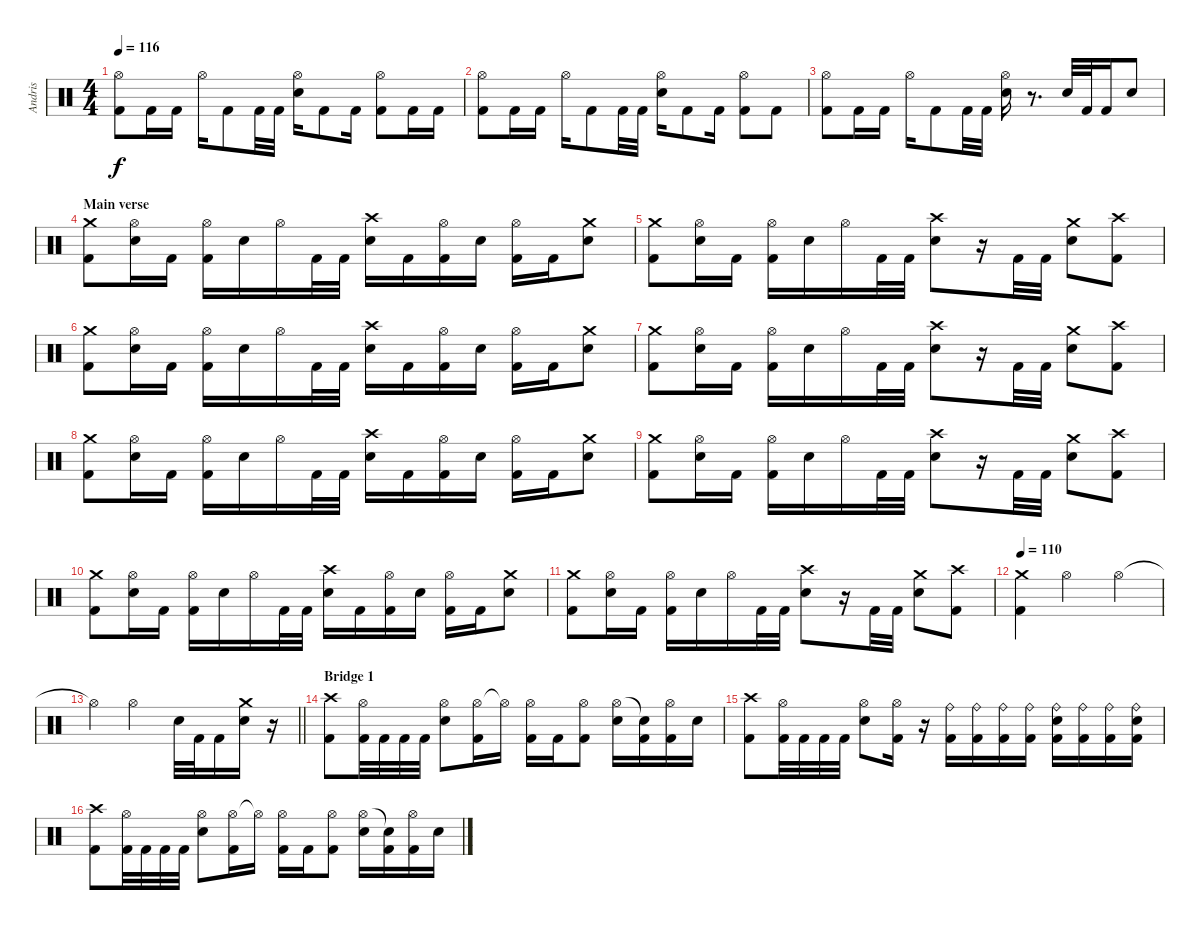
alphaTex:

\track ("Andris" "Andris") {instrument percussion}
\staff {score}
\articulation defaults
\ts (4 4)
\tempo 116
\clef neutral
\ks c
("Hi-Hat (open)" "Kick (hit) 2").8{dy f} "Kick (hit) 2".16 "Kick (hit) 2".16 "Hi-Hat (open)".16 "Kick (hit) 2".8 "Kick (hit) 2".32 "Kick (hit) 2".32 ("Hi-Hat (open)" "Electric Snare (hit)").16 "Kick (hit) 2".8 "Kick (hit) 2".16 ("Hi-Hat (open)" "Kick (hit) 2").8 "Kick (hit) 2".16 "Kick (hit) 2".16 |
("Hi-Hat (open)" "Kick (hit) 2").8 "Kick (hit) 2".16 "Kick (hit) 2".16 "Hi-Hat (open)".16 "Kick (hit) 2".8 "Kick (hit) 2".32 "Kick (hit) 2".32 ("Hi-Hat (open)" "Electric Snare (hit)").16 "Kick (hit) 2".8 "Kick (hit) 2".16 ("Hi-Hat (open)" "Kick (hit) 2").8 "Kick (hit) 2".8 |
("Hi-Hat (open)" "Kick (hit) 2").8 "Kick (hit) 2".16 "Kick (hit) 2".16 "Hi-Hat (open)".16 "Kick (hit) 2".8 "Kick (hit) 2".32 "Kick (hit) 2".32 ("Hi-Hat (open)" "Electric Snare (hit)").16 r.8{d} "Electric Snare (hit)".32 "Kick (hit) 2".32 "Kick (hit) 2".16 "Electric Snare (hit)".8 |
\section ("" "Main verse")
("Crash medium (hit)" "Kick (hit) 2").8 ("Hi-Hat (open)" "Electric Snare (hit)").16 "Kick (hit) 2".16 ("Hi-Hat (open)" "Kick (hit) 2").16 "Electric Snare (hit)".16 "Hi-Hat (open)".16 "Kick (hit) 2".32 "Kick (hit) 2".32 ("Crash high (hit)" "Electric Snare (hit)").16 "Kick (hit) 2".16 ("Hi-Hat (open)" "Kick (hit) 2").16 "Electric Snare (hit)".16 ("Hi-Hat (open)" "Kick (hit) 2").16 "Kick (hit) 2".16 ("Crash medium (hit)" "Electric Snare (hit)").8 |
("Crash medium (hit)" "Kick (hit) 2").8 ("Hi-Hat (open)" "Electric Snare (hit)").16 "Kick (hit) 2".16 ("Hi-Hat (open)" "Kick (hit) 2").16 "Electric Snare (hit)".16 "Hi-Hat (open)".16 "Kick (hit) 2".32 "Kick (hit) 2".32 ("Crash high (hit)" "Electric Snare (hit)").8 r.16 "Kick (hit) 2".32 "Kick (hit) 2".32 ("Crash medium (hit)" "Electric Snare (hit)").8 ("Crash high (hit)" "Kick (hit) 2").8 |
("Crash medium (hit)" "Kick (hit) 2").8 ("Hi-Hat (open)" "Electric Snare (hit)").16 "Kick (hit) 2".16 ("Hi-Hat (open)" "Kick (hit) 2").16 "Electric Snare (hit)".16 "Hi-Hat (open)".16 "Kick (hit) 2".32 "Kick (hit) 2".32 ("Crash high (hit)" "Electric Snare (hit)").16 "Kick (hit) 2".16 ("Hi-Hat (open)" "Kick (hit) 2").16 "Electric Snare (hit)".16 ("Hi-Hat (open)" "Kick (hit) 2").16 "Kick (hit) 2".16 ("Crash medium (hit)" "Electric Snare (hit)").8 |
("Crash medium (hit)" "Kick (hit) 2").8 ("Hi-Hat (open)" "Electric Snare (hit)").16 "Kick (hit) 2".16 ("Hi-Hat (open)" "Kick (hit) 2").16 "Electric Snare (hit)".16 "Hi-Hat (open)".16 "Kick (hit) 2".32 "Kick (hit) 2".32 ("Crash high (hit)" "Electric Snare (hit)").8 r.16 "Kick (hit) 2".32 "Kick (hit) 2".32 ("Crash medium (hit)" "Electric Snare (hit)").8 ("Crash high (hit)" "Kick (hit) 2").8 |
("Crash medium (hit)" "Kick (hit) 2").8 ("Hi-Hat (open)" "Electric Snare (hit)").16 "Kick (hit) 2".16 ("Hi-Hat (open)" "Kick (hit) 2").16 "Electric Snare (hit)".16 "Hi-Hat (open)".16 "Kick (hit) 2".32 "Kick (hit) 2".32 ("Crash high (hit)" "Electric Snare (hit)").16 "Kick (hit) 2".16 ("Hi-Hat (open)" "Kick (hit) 2").16 "Electric Snare (hit)".16 ("Hi-Hat (open)" "Kick (hit) 2").16 "Kick (hit) 2".16 ("Crash medium (hit)" "Electric Snare (hit)").8 |
("Crash medium (hit)" "Kick (hit) 2").8 ("Hi-Hat (open)" "Electric Snare (hit)").16 "Kick (hit) 2".16 ("Hi-Hat (open)" "Kick (hit) 2").16 "Electric Snare (hit)".16 "Hi-Hat (open)".16 "Kick (hit) 2".32 "Kick (hit) 2".32 ("Crash high (hit)" "Electric Snare (hit)").8 r.16 "Kick (hit) 2".32 "Kick (hit) 2".32 ("Crash medium (hit)" "Electric Snare (hit)").8 ("Crash high (hit)" "Kick (hit) 2").8 |
("Crash medium (hit)" "Kick (hit) 2").8 ("Hi-Hat (open)" "Electric Snare (hit)").16 "Kick (hit) 2".16 ("Hi-Hat (open)" "Kick (hit) 2").16 "Electric Snare (hit)".16 "Hi-Hat (open)".16 "Kick (hit) 2".32 "Kick (hit) 2".32 ("Crash high (hit)" "Electric Snare (hit)").16 "Kick (hit) 2".16 ("Hi-Hat (open)" "Kick (hit) 2").16 "Electric Snare (hit)".16 ("Hi-Hat (open)" "Kick (hit) 2").16 "Kick (hit) 2".16 ("Crash medium (hit)" "Electric Snare (hit)").8 |
("Crash medium (hit)" "Kick (hit) 2").8 ("Hi-Hat (open)" "Electric Snare (hit)").16 "Kick (hit) 2".16 ("Hi-Hat (open)" "Kick (hit) 2").16 "Electric Snare (hit)".16 "Hi-Hat (open)".16 "Kick (hit) 2".32 "Kick (hit) 2".32 ("Crash high (hit)" "Electric Snare (hit)").8 r.16 "Kick (hit) 2".32 "Kick (hit) 2".32 ("Crash medium (hit)" "Electric Snare (hit)").8 ("Crash high (hit)" "Kick (hit) 2").8 |
\tempo 110
("Crash medium (hit)" "Kick (hit) 2").4 "Hi-Hat (open)".2 "Hi-Hat (open)".4 |
\barLineRight lightlight "Hi-Hat (open)"{t}.4 "Hi-Hat (open)".2 "Electric Snare (hit)".32 "Kick (hit) 2".32 "Kick (hit) 2".16
("Crash medium (hit)" "Electric Snare (hit)").16 r.16 |
\section ("" "Bridge 1")
("Crash high (hit)" "Kick (hit) 2").8 ("Hi-Hat (open)" "Kick (hit) 2").32 "Kick (hit) 2".32 "Kick (hit) 2".32 "Kick (hit) 2".32 ("Hi-Hat (open)" "Electric Snare (hit)").8 ("Hi-Hat (open)" "Kick (hit) 2").16 "Hi-Hat (open)"{t}.16 ("Hi-Hat (open)" "Kick (hit) 2").16 "Kick (hit) 2".16 ("Hi-Hat (open)" "Kick (hit) 2").8 ("Hi-Hat (open)" "Electric Snare (hit)").16 ("Snare (hit)"{t} "Kick (hit) 2").16 ("Hi-Hat (open)" "Kick (hit) 2").16 "Electric Snare (hit)".16 |
("Crash high (hit)" "Kick (hit) 2").8 ("Hi-Hat (open)" "Kick (hit) 2").32 "Kick (hit) 2".32 "Kick (hit) 2".32 "Kick (hit) 2".32 ("Hi-Hat (open)" "Electric Snare (hit)").8 ("Hi-Hat (open)" "Kick (hit) 2").16 r.16 ("Ride (bell)" "Kick (hit) 2").16 ("Ride (bell)" "Kick (hit) 2").16 ("Ride (bell)" "Kick (hit) 2").16 ("Ride (bell)" "Kick (hit) 2").16 ("Ride (bell)" "Electric Snare (hit)" "Kick (hit) 2").16 ("Ride (bell)" "Kick (hit) 2").16 ("Ride (bell)" "Kick (hit) 2").16 ("Ride (bell)" "Electric Snare (hit)" "Kick (hit) 2").16 |
("Crash high (hit)" "Kick (hit) 2").8 ("Hi-Hat (open)" "Kick (hit) 2").32 "Kick (hit) 2".32 "Kick (hit) 2".32 "Kick (hit) 2".32 ("Hi-Hat (open)" "Electric Snare (hit)").8 ("Hi-Hat (open)" "Kick (hit) 2").16 "Hi-Hat (open)"{t}.16 ("Hi-Hat (open)" "Kick (hit) 2").16 "Kick (hit) 2".16 ("Hi-Hat (open)" "Kick (hit) 2").8 ("Hi-Hat (open)" "Electric Snare (hit)").16 ("Snare (hit)"{t} "Kick (hit) 2").16 ("Hi-Hat (open)" "Kick (hit) 2").16 "Electric Snare (hit)".16
